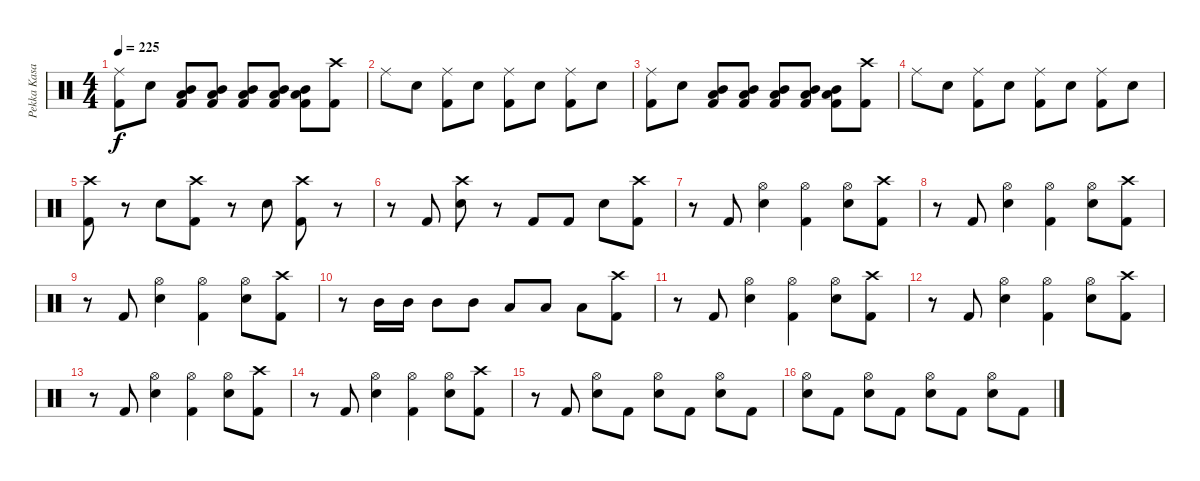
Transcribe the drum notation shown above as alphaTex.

\track ("Pekka Kasari" "Pekka Kasa") {instrument percussion}
\staff {score}
\articulation defaults
\ts (4 4)
\tempo 225
\clef neutral
\ks c
("Ride (middle)" "Kick (hit) 2").8{dy f} "Snare (hit) 2".8 ("Mid Tom (hit)" "Kick (hit) 2" "Low Floor Tom (hit)").8 ("Low Floor Tom (hit)" "Mid Tom (hit)" "Kick (hit) 2").8 ("Mid Tom (hit)" "Kick (hit) 2" "Low Floor Tom (hit)").8 ("Mid Tom (hit)" "Kick (hit) 2" "Low Floor Tom (hit)").8 ("Low Floor Tom (hit)" "Mid Tom (hit)" "Kick (hit) 2").8 ("Crash high (hit)" "Kick (hit) 2").8 |
"Ride (middle)".8 "Snare (hit) 2".8 ("Ride (middle)" "Kick (hit) 2").8 "Snare (hit) 2".8 ("Ride (middle)" "Kick (hit) 2").8 "Snare (hit) 2".8 ("Kick (hit) 2" "Ride (middle)").8 "Snare (hit) 2".8 |
("Ride (middle)" "Kick (hit) 2").8 "Snare (hit) 2".8 ("Low Floor Tom (hit)" "Mid Tom (hit)" "Kick (hit) 2").8 ("Low Floor Tom (hit)" "Mid Tom (hit)" "Kick (hit) 2").8 ("Kick (hit) 2" "Low Floor Tom (hit)" "Mid Tom (hit)").8 ("Low Floor Tom (hit)" "Mid Tom (hit)" "Kick (hit) 2").8 ("Low Floor Tom (hit)" "Mid Tom (hit)" "Kick (hit) 2").8 ("Kick (hit) 2" "Crash high (hit)").8 |
"Ride (middle)".8 "Snare (hit) 2".8 ("Ride (middle)" "Kick (hit) 2").8 "Snare (hit) 2".8 ("Ride (middle)" "Kick (hit) 2").8 "Snare (hit) 2".8 ("Kick (hit) 2" "Ride (middle)").8 "Snare (hit) 2".8 |
("Crash high (hit)" "Kick (hit) 2").8 r.8 "Snare (hit) 2".8 ("Crash high (hit)" "Kick (hit) 2").8 r.8 "Snare (hit) 2".8 ("Crash high (hit)" "Kick (hit) 2").8 r.8 |
r.8 "Kick (hit) 2".8 ("Crash high (hit)" "Snare (hit) 2").8 r.8 "Kick (hit) 2".8 "Kick (hit) 2".8 "Snare (hit) 2".8 ("Crash high (hit)" "Kick (hit) 2").8 |
r.8 "Kick (hit) 2".8 ("Hi-Hat (open)" "Snare (hit) 2").4 ("Hi-Hat (open)" "Kick (hit) 2").4 ("Hi-Hat (open)" "Snare (hit) 2").8 ("Kick (hit) 2" "Crash high (hit)").8 |
r.8 "Kick (hit) 2".8 ("Hi-Hat (open)" "Snare (hit) 2").4 ("Hi-Hat (open)" "Kick (hit) 2").4 ("Hi-Hat (open)" "Snare (hit) 2").8 ("Kick (hit) 2" "Crash high (hit)").8 |
r.8 "Kick (hit) 2".8 ("Hi-Hat (open)" "Snare (hit) 2").4 ("Hi-Hat (open)" "Kick (hit) 2").4 ("Hi-Hat (open)" "Snare (hit) 2").8 ("Kick (hit) 2" "Crash high (hit)").8 |
r.8 "Mid Tom (hit)".16 "Mid Tom (hit)".16 "Mid Tom (hit)".8 "Mid Tom (hit)".8 "Low Tom (hit)".8 "Low Floor Tom (hit)".8 "Low Floor Tom (hit)".8 ("Crash high (hit)" "Kick (hit) 2").8 |
r.8 "Kick (hit) 2".8 ("Hi-Hat (open)" "Snare (hit) 2").4 ("Hi-Hat (open)" "Kick (hit) 2").4 ("Hi-Hat (open)" "Snare (hit) 2").8 ("Kick (hit) 2" "Crash high (hit)").8 |
r.8 "Kick (hit) 2".8 ("Hi-Hat (open)" "Snare (hit) 2").4 ("Hi-Hat (open)" "Kick (hit) 2").4 ("Hi-Hat (open)" "Snare (hit) 2").8 ("Kick (hit) 2" "Crash high (hit)").8 |
r.8 "Kick (hit) 2".8 ("Hi-Hat (open)" "Snare (hit) 2").4 ("Hi-Hat (open)" "Kick (hit) 2").4 ("Hi-Hat (open)" "Snare (hit) 2").8 ("Kick (hit) 2" "Crash high (hit)").8 |
r.8 "Kick (hit) 2".8 ("Hi-Hat (open)" "Snare (hit) 2").4 ("Hi-Hat (open)" "Kick (hit) 2").4 ("Hi-Hat (open)" "Snare (hit) 2").8 ("Crash high (hit)" "Kick (hit) 2").8 |
r.8 "Kick (hit) 2".8 ("Hi-Hat (open)" "Snare (hit) 2").8 "Kick (hit) 2".8 ("Hi-Hat (open)" "Snare (hit) 2").8 "Kick (hit) 2".8 ("Hi-Hat (open)" "Snare (hit) 2").8 "Kick (hit) 2".8 |
("Hi-Hat (open)" "Snare (hit) 2").8 "Kick (hit) 2".8 ("Hi-Hat (open)" "Snare (hit) 2").8 "Kick (hit) 2".8 ("Hi-Hat (open)" "Snare (hit) 2").8 "Kick (hit) 2".8 ("Hi-Hat (open)" "Snare (hit) 2").8 "Kick (hit) 2".8
